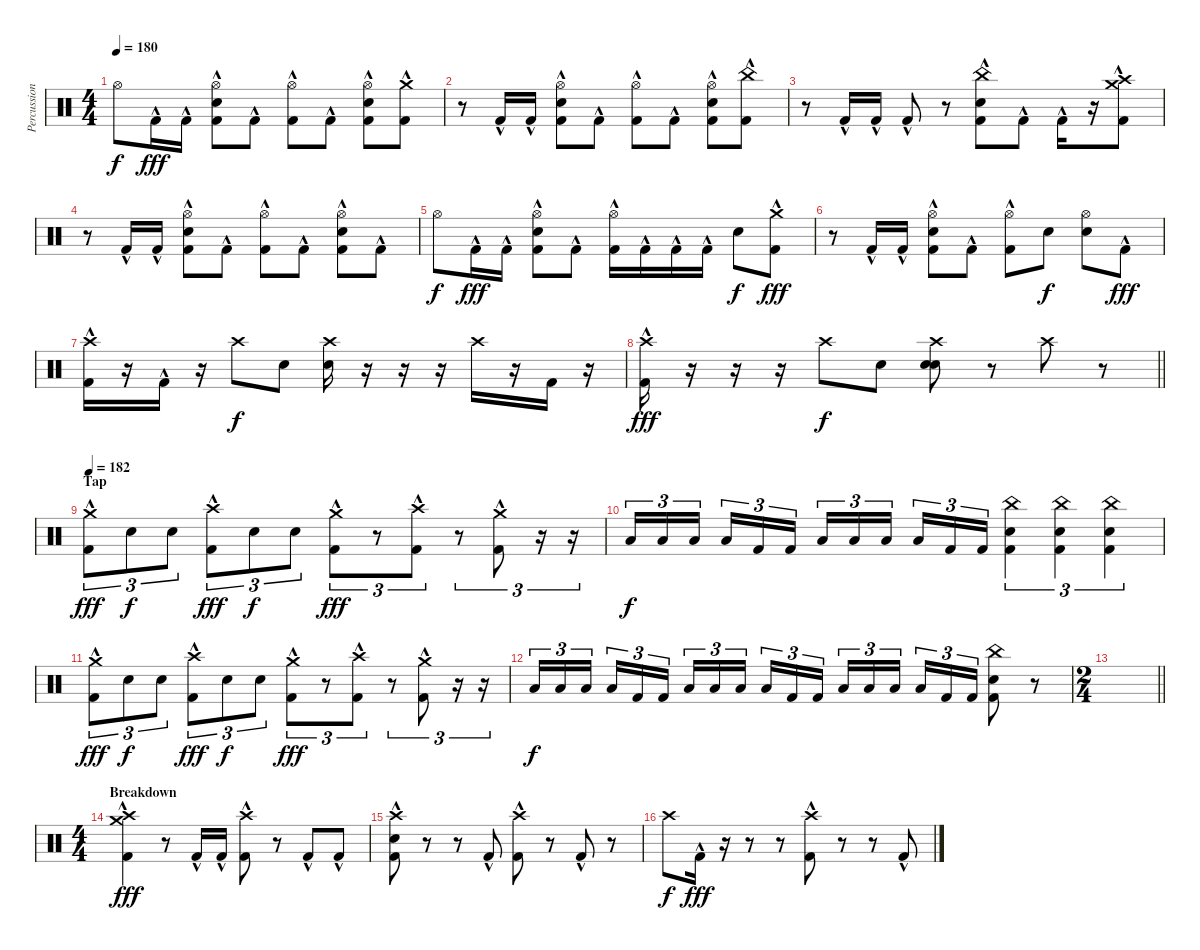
\track ("Percussion" "Percussion") {instrument percussion}
\staff {score}
\articulation defaults
\ts (4 4)
\tempo 180
\clef neutral
\ks c "Hi-Hat (open)".8{dy f} "Kick (hit) 2"{hac}.16{dy fff} "Kick (hit) 2"{hac}.16
("Hi-Hat (open)" "Electric Snare (hit)" "Kick (hit) 2"{hac}).8 "Kick (hit) 2"{hac}.8 ("Hi-Hat (open)" "Kick (hit) 2"{hac}).8 "Kick (hit) 2"{hac}.8 ("Hi-Hat (open)" "Electric Snare (hit)" "Kick (hit) 2"{hac}).8 ("Crash medium (hit)" "Kick (hit) 2"{hac}).8 |
r.8 "Kick (hit) 2"{hac}.16 "Kick (hit) 2"{hac}.16 ("Hi-Hat (open)" "Electric Snare (hit)" "Kick (hit) 2"{hac}).8 "Kick (hit) 2"{hac}.8 ("Hi-Hat (open)" "Kick (hit) 2"{hac}).8 "Kick (hit) 2"{hac}.8 ("Hi-Hat (open)" "Electric Snare (hit)" "Kick (hit) 2"{hac}).8 ("China (hit)" "Kick (hit) 2"{hac}).8 |
r.8 "Kick (hit) 2"{hac}.16 "Kick (hit) 2"{hac}.16 "Kick (hit) 2"{hac}.8 r.8 ("China (hit)" "Electric Snare (hit)" "Kick (hit) 2"{hac}).8 "Kick (hit) 2"{hac}.8 "Kick (hit) 2"{hac}.16 r.16 ("Crash medium (hit)" "Crash high (hit)" "Kick (hit) 2"{hac}).8 |
r.8 "Kick (hit) 2"{hac}.16 "Kick (hit) 2"{hac}.16 ("Hi-Hat (open)" "Electric Snare (hit)" "Kick (hit) 2"{hac}).8 "Kick (hit) 2"{hac}.8 ("Hi-Hat (open)" "Kick (hit) 2"{hac}).8 "Kick (hit) 2"{hac}.8 ("Hi-Hat (open)" "Electric Snare (hit)" "Kick (hit) 2"{hac}).8 "Kick (hit) 2"{hac}.8 |
"Hi-Hat (open)".8{dy f} "Kick (hit) 2"{hac}.16{dy fff} "Kick (hit) 2"{hac}.16 ("Hi-Hat (open)" "Electric Snare (hit)" "Kick (hit) 2"{hac}).8 "Kick (hit) 2"{hac}.8 ("Hi-Hat (open)" "Kick (hit) 2"{hac}).16 "Kick (hit) 2"{hac}.16 "Kick (hit) 2"{hac}.16 "Kick (hit) 2"{hac}.16 "Electric Snare (hit)".8{dy f} ("Crash medium (hit)" "Kick (hit) 2"{hac}).8{dy fff} |
r.8 "Kick (hit) 2"{hac}.16 "Kick (hit) 2"{hac}.16 ("Hi-Hat (open)" "Electric Snare (hit)" "Kick (hit) 2"{hac}).8 "Kick (hit) 2"{hac}.8 ("Hi-Hat (open)" "Kick (hit) 2"{hac}).8 "Electric Snare (hit)".8{dy f} ("Hi-Hat (open)" "Electric Snare (hit)").8 "Kick (hit) 2"{hac}.8{dy fff} |
("Kick (hit) 2"{hac} "Crash high (hit)").16 r.16 "Kick (hit) 2"{hac}.16 r.16 "Crash high (hit)".8{dy f} "Electric Snare (hit)".8 ("Electric Snare (hit)" "Crash high (hit)").16 r.16 r.16 r.16 "Crash high (hit)".16 r.16 "Kick (hit) 2".16 r.16 |
\barLineRight lightlight
("Kick (hit) 2"{hac} "Crash high (hit)").16{dy fff} r.16 r.16 r.16 "Crash high (hit)".8{dy f} "Electric Snare (hit)".8 ("Electric Snare (hit)" "Electric Snare (hit)" "Crash high (hit)").8 r.8 "Crash high (hit)".8 r.8 |
\section ("" "Tap")
\tempo 182
("Crash medium (hit)" "Kick (hit) 2"{hac}).8{tu (3 2) dy fff} "Electric Snare (hit)".8{tu (3 2) dy f} "Electric Snare (hit)".8{tu (3 2)} ("Crash high (hit)" "Kick (hit) 2"{hac}).8{tu (3 2) dy fff} "Electric Snare (hit)".8{tu (3 2) dy f} "Electric Snare (hit)".8{tu (3 2)} ("Crash medium (hit)" "Kick (hit) 2"{hac}).8{tu (3 2) dy fff} r.8{tu (3 2)} ("Crash high (hit)" "Kick (hit) 2"{hac}).8{tu (3 2)} r.8{tu (3 2)} ("Crash medium (hit)" "Kick (hit) 2"{hac}).8{tu (3 2)} r.16{tu (3 2)} r.16{tu (3 2)} |
"Low Tom (hit)".16{tu (3 2) dy f} "Low Tom (hit)".16{tu (3 2)} "Low Tom (hit)".16{tu (3 2) beam splitsecondary} "Low Tom (hit)".16{tu (3 2)} "Kick (hit) 2".16{tu (3 2)} "Kick (hit) 2".16{tu (3 2)} "Low Floor Tom (hit)".16{tu (3 2)} "Low Floor Tom (hit)".16{tu (3 2)} "Low Floor Tom (hit)".16{tu (3 2) beam splitsecondary} "Low Floor Tom (hit)".16{tu (3 2)} "Kick (hit) 2".16{tu (3 2)} "Kick (hit) 2".16{tu (3 2)} ("China (hit)" "Electric Snare (hit)" "Kick (hit) 2").4{tu (3 2)} ("China (hit)" "Electric Snare (hit)" "Kick (hit) 2").4{tu (3 2)} ("China (hit)" "Electric Snare (hit)" "Kick (hit) 2").4{tu (3 2)} |
("Crash medium (hit)" "Kick (hit) 2"{hac}).8{tu (3 2) dy fff} "Electric Snare (hit)".8{tu (3 2) dy f} "Electric Snare (hit)".8{tu (3 2)} ("Crash high (hit)" "Kick (hit) 2"{hac}).8{tu (3 2) dy fff} "Electric Snare (hit)".8{tu (3 2) dy f} "Electric Snare (hit)".8{tu (3 2)} ("Crash medium (hit)" "Kick (hit) 2"{hac}).8{tu (3 2) dy fff} r.8{tu (3 2)} ("Crash high (hit)" "Kick (hit) 2"{hac}).8{tu (3 2)} r.8{tu (3 2)} ("Crash medium (hit)" "Kick (hit) 2"{hac}).8{tu (3 2)} r.16{tu (3 2)} r.16{tu (3 2)} |
"Low Tom (hit)".16{tu (3 2) dy f} "Low Tom (hit)".16{tu (3 2)} "Low Tom (hit)".16{tu (3 2) beam splitsecondary} "Low Tom (hit)".16{tu (3 2)} "Kick (hit) 2".16{tu (3 2)} "Kick (hit) 2".16{tu (3 2)} "Low Floor Tom (hit)".16{tu (3 2)} "Low Floor Tom (hit)".16{tu (3 2)} "Low Floor Tom (hit)".16{tu (3 2) beam splitsecondary} "Low Floor Tom (hit)".16{tu (3 2)} "Kick (hit) 2".16{tu (3 2)} "Kick (hit) 2".16{tu (3 2)} "Low Floor Tom (hit)".16{tu (3 2)} "Low Floor Tom (hit)".16{tu (3 2)} "Low Floor Tom (hit)".16{tu (3 2) beam splitsecondary} "Low Floor Tom (hit)".16{tu (3 2)} "Kick (hit) 2".16{tu (3 2)} "Kick (hit) 2".16{tu (3 2)} ("China (hit)" "Electric Snare (hit)" "Kick (hit) 2").8 r.8{volume 0} |
\ts (2 4)
\barLineRight lightlight
|
\ts (4 4)
\section ("" "Breakdown")
("Crash high (hit)" "Crash medium (hit)" "Kick (hit) 2"{hac}).4{dy fff volume 16} r.8 "Kick (hit) 2"{hac}.16 "Kick (hit) 2"{hac}.16 ("Crash high (hit)" "Kick (hit) 2"{hac}).8 r.8 "Kick (hit) 2"{hac}.8 "Kick (hit) 2"{hac}.8 |
("Crash high (hit)" "Electric Snare (hit)" "Kick (hit) 2"{hac}).8 r.8 r.8 "Kick (hit) 2"{hac}.8 ("Crash high (hit)" "Kick (hit) 2"{hac}).8 r.8 "Kick (hit) 2"{hac}.8 r.8 |
"Crash high (hit)".8{dy f} "Kick (hit) 2"{hac}.16{dy fff} r.16 r.8 r.8 ("Crash high (hit)" "Kick (hit) 2"{hac}).8 r.8 r.8 "Kick (hit) 2"{hac}.8
